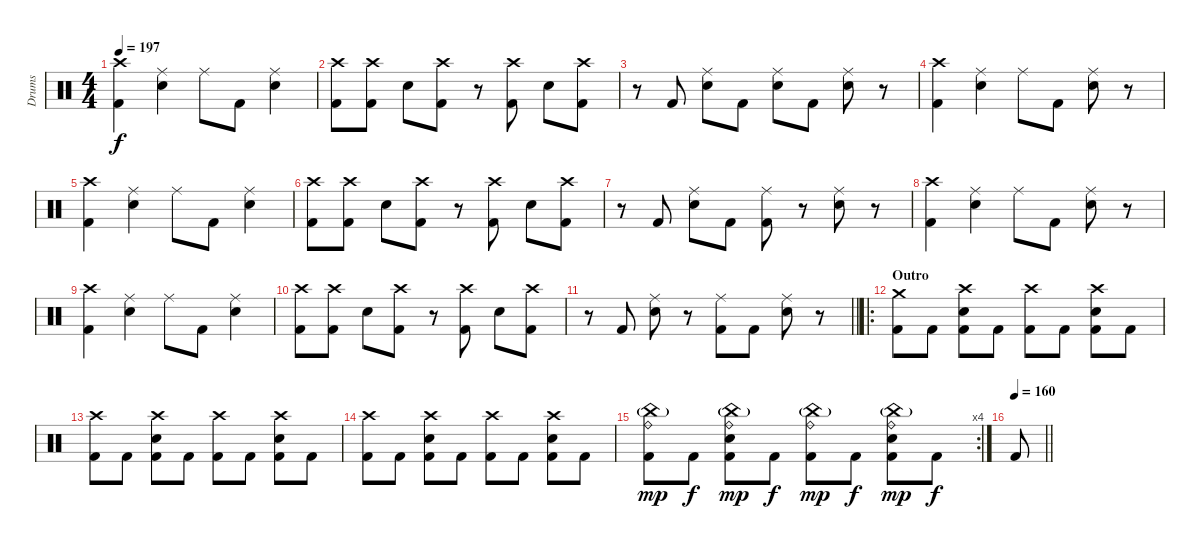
\track ("Drums" "Drums") {instrument percussion}
\staff {score}
\articulation defaults
\ts (4 4)
\tempo 197
\clef neutral
\ks c
("Crash high (hit)" "Kick (hit) 2").4{dy f} ("Ride (middle)" "Electric Snare (hit)").4 "Ride (middle)".8 "Kick (hit) 2".8 ("Ride (middle)" "Electric Snare (hit)").4 |
("Crash high (hit)" "Kick (hit) 2").8 ("Crash high (hit)" "Kick (hit) 2").8 "Electric Snare (hit)".8 ("Crash high (hit)" "Kick (hit) 2").8 r.8 ("Crash high (hit)" "Kick (hit) 2").8 "Electric Snare (hit)".8 ("Crash high (hit)" "Kick (hit) 2").8 |
r.8 "Kick (hit) 2".8 ("Ride (middle)" "Electric Snare (hit)").8 "Kick (hit) 2".8 ("Ride (middle)" "Electric Snare (hit)").8 "Kick (hit) 2".8 ("Ride (middle)" "Electric Snare (hit)").8 r.8 |
("Crash high (hit)" "Kick (hit) 2").4 ("Ride (middle)" "Electric Snare (hit)").4 "Ride (middle)".8 "Kick (hit) 2".8 ("Ride (middle)" "Electric Snare (hit)").8 r.8 |
("Crash high (hit)" "Kick (hit) 2").4 ("Ride (middle)" "Electric Snare (hit)").4 "Ride (middle)".8 "Kick (hit) 2".8 ("Ride (middle)" "Electric Snare (hit)").4 |
("Crash high (hit)" "Kick (hit) 2").8 ("Crash high (hit)" "Kick (hit) 2").8 "Electric Snare (hit)".8 ("Crash high (hit)" "Kick (hit) 2").8 r.8 ("Crash high (hit)" "Kick (hit) 2").8 "Electric Snare (hit)".8 ("Crash high (hit)" "Kick (hit) 2").8 |
r.8 "Kick (hit) 2".8 ("Ride (middle)" "Electric Snare (hit)").8 "Kick (hit) 2".8 ("Ride (middle)" "Kick (hit) 2").8 r.8 ("Ride (middle)" "Electric Snare (hit)").8 r.8 |
("Crash high (hit)" "Kick (hit) 2").4 ("Ride (middle)" "Electric Snare (hit)").4 "Ride (middle)".8 "Kick (hit) 2".8 ("Ride (middle)" "Electric Snare (hit)").8 r.8 |
("Crash high (hit)" "Kick (hit) 2").4 ("Ride (middle)" "Electric Snare (hit)").4 "Ride (middle)".8 "Kick (hit) 2".8 ("Ride (middle)" "Electric Snare (hit)").4 |
("Crash high (hit)" "Kick (hit) 2").8 ("Crash high (hit)" "Kick (hit) 2").8 "Electric Snare (hit)".8 ("Crash high (hit)" "Kick (hit) 2").8 r.8 ("Crash high (hit)" "Kick (hit) 2").8 "Electric Snare (hit)".8 ("Crash high (hit)" "Kick (hit) 2").8 |
\barLineRight lightlight
r.8 "Kick (hit) 2".8 ("Ride (middle)" "Electric Snare (hit)").8 r.8 ("Ride (middle)" "Kick (hit) 2").8 "Kick (hit) 2".8 ("Ride (middle)" "Electric Snare (hit)").8 r.8 |
\ro
\section ("" "Outro")
("Crash medium (hit)" "Kick (hit) 2").8 "Kick (hit) 2".8 ("Crash high (hit)" "Electric Snare (hit)" "Kick (hit) 2").8 "Kick (hit) 2".8 ("Crash high (hit)" "Kick (hit) 2").8 "Kick (hit) 2".8 ("Crash high (hit)" "Electric Snare (hit)" "Kick (hit) 2").8 "Kick (hit) 2".8 |
("Crash high (hit)" "Kick (hit) 2").8 "Kick (hit) 2".8 ("Crash high (hit)" "Electric Snare (hit)" "Kick (hit) 2").8 "Kick (hit) 2".8 ("Crash high (hit)" "Kick (hit) 2").8 "Kick (hit) 2".8 ("Crash high (hit)" "Electric Snare (hit)" "Kick (hit) 2").8 "Kick (hit) 2".8 |
("Crash high (hit)" "Kick (hit) 2").8 "Kick (hit) 2".8 ("Crash high (hit)" "Electric Snare (hit)" "Kick (hit) 2").8 "Kick (hit) 2".8 ("Crash high (hit)" "Kick (hit) 2").8 "Kick (hit) 2".8 ("Crash high (hit)" "Electric Snare (hit)" "Kick (hit) 2").8 "Kick (hit) 2".8 |
\rc 4
("China (hit)"{g} "Ride (bell)" "Kick (hit) 2").8{dy mp} "Kick (hit) 2".8{dy f} ("China (hit)"{g} "Ride (bell)" "Electric Snare (hit)" "Kick (hit) 2").8{dy mp} "Kick (hit) 2".8{dy f} ("China (hit)"{g} "Ride (bell)" "Kick (hit) 2").8{dy mp} "Kick (hit) 2".8{dy f} ("China (hit)"{g} "Ride (bell)" "Electric Snare (hit)" "Kick (hit) 2").8{dy mp} "Kick (hit) 2".8{dy f} |
\tempo 160
\barLineRight lightlight "Kick (hit) 2".8
